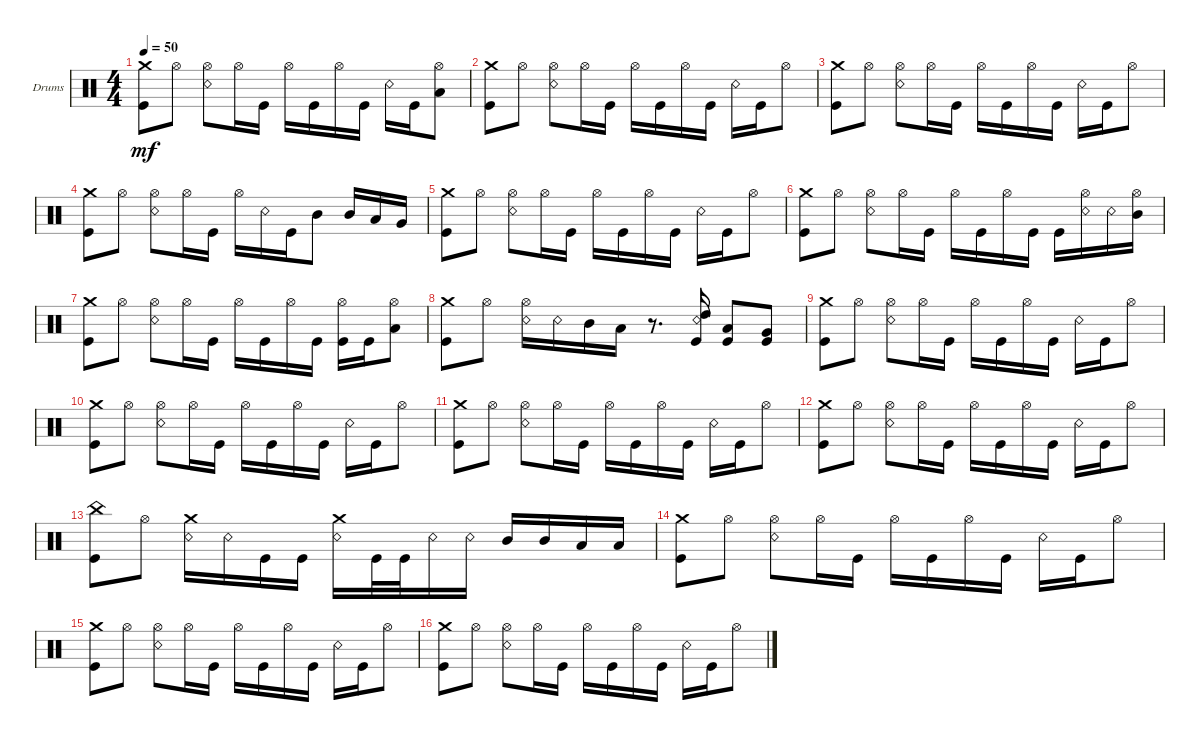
\defaultSystemsLayout 4
\bracketExtendMode groupsimilarinstruments
\firstSystemTrackNameOrientation horizontal
\otherSystemsTrackNameOrientation horizontal
\track ("Drumkit" "Drums") {instrument percussion}
\staff {score}
\articulation defaults
\ts (4 4)
\tempo 50
\clef neutral
\ks c
("Crash medium (hit)" "Kick (hit)").8{dy mf} "Hi-Hat (open)".8 ("Hi-Hat (open)" "Snare (rim shot)").8 "Hi-Hat (open)".16 "Kick (hit)".16 "Hi-Hat (open)".16 "Kick (hit)".16 "Hi-Hat (open)".16 "Kick (hit)".16 "Snare (rim shot)".16 "Kick (hit)".16 ("Low Tom (hit)" "Hi-Hat (open)").8 |
("Crash medium (hit)" "Kick (hit)").8 "Hi-Hat (open)".8 ("Snare (rim shot)" "Hi-Hat (open)").8 "Hi-Hat (open)".16 "Kick (hit)".16 "Hi-Hat (open)".16 "Kick (hit)".16 "Hi-Hat (open)".16 "Kick (hit)".16 "Snare (rim shot)".16 "Kick (hit)".16 "Hi-Hat (open)".8 |
("Crash medium (hit)" "Kick (hit)").8 "Hi-Hat (open)".8 ("Snare (rim shot)" "Hi-Hat (open)").8 "Hi-Hat (open)".16 "Kick (hit)".16 "Hi-Hat (open)".16 "Kick (hit)".16 "Hi-Hat (open)".16 "Kick (hit)".16 "Snare (rim shot)".16 "Kick (hit)".16 "Hi-Hat (open)".8 |
("Crash medium (hit)" "Kick (hit)").8 "Hi-Hat (open)".8 ("Hi-Hat (open)" "Snare (rim shot)").8 "Hi-Hat (open)".16 "Kick (hit)".16 "Hi-Hat (open)".16 "Snare (rim shot)".16 "Kick (hit)".16 "Mid Tom (hit)".8 "Mid Tom (hit)".16 "Low Tom (hit)".16 "Very Low Tom (hit)".16 |
("Crash medium (hit)" "Kick (hit)").8 "Hi-Hat (open)".8 ("Snare (rim shot)" "Hi-Hat (open)").8 "Hi-Hat (open)".16 "Kick (hit)".16 "Hi-Hat (open)".16 "Kick (hit)".16 "Hi-Hat (open)".16 "Kick (hit)".16 "Snare (rim shot)".16 "Kick (hit)".16 "Hi-Hat (open)".8 |
("Crash medium (hit)" "Kick (hit)").8 "Hi-Hat (open)".8 ("Hi-Hat (open)" "Snare (rim shot)").8 "Hi-Hat (open)".16 "Kick (hit)".16 "Hi-Hat (open)".16 "Kick (hit)".16 "Hi-Hat (open)".16 "Kick (hit)".16 "Kick (hit)".16 ("Snare (rim shot)" "Hi-Hat (open)").16 "Snare (rim shot)".16 ("Mid Tom (hit)" "Hi-Hat (open)").16 |
("Crash medium (hit)" "Kick (hit)").8 "Hi-Hat (open)".8 ("Hi-Hat (open)" "Snare (rim shot)").8 "Hi-Hat (open)".16 "Kick (hit)".16 "Hi-Hat (open)".16 "Kick (hit)".16 "Hi-Hat (open)".16 "Kick (hit)".16 ("Kick (hit)" "Hi-Hat (open)").16 "Kick (hit)".16 ("Low Tom (hit)" "Hi-Hat (open)").8 |
("Crash medium (hit)" "Kick (hit)").8 "Hi-Hat (open)".8 ("Hi-Hat (open)" "Snare (rim shot)").16 "Snare (rim shot)".16 "Mid Tom (hit)".16 "Low Tom (hit)".16 r.8{d} ("Snare (rim shot)" "Kick (hit)" "High Tom (hit)").16 ("Kick (hit)" "Low Tom (hit)").8 ("Kick (hit)" "Very Low Tom (hit)").8 |
("Crash medium (hit)" "Kick (hit)").8 "Hi-Hat (open)".8 ("Snare (rim shot)" "Hi-Hat (open)").8 "Hi-Hat (open)".16 "Kick (hit)".16 "Hi-Hat (open)".16 "Kick (hit)".16 "Hi-Hat (open)".16 "Kick (hit)".16 "Snare (rim shot)".16 "Kick (hit)".16 "Hi-Hat (open)".8 |
("Crash medium (hit)" "Kick (hit)").8 "Hi-Hat (open)".8 ("Snare (rim shot)" "Hi-Hat (open)").8 "Hi-Hat (open)".16 "Kick (hit)".16 "Hi-Hat (open)".16 "Kick (hit)".16 "Hi-Hat (open)".16 "Kick (hit)".16 "Snare (rim shot)".16 "Kick (hit)".16 "Hi-Hat (open)".8 |
("Crash medium (hit)" "Kick (hit)").8 "Hi-Hat (open)".8 ("Snare (rim shot)" "Hi-Hat (open)").8 "Hi-Hat (open)".16 "Kick (hit)".16 "Hi-Hat (open)".16 "Kick (hit)".16 "Hi-Hat (open)".16 "Kick (hit)".16 "Snare (rim shot)".16 "Kick (hit)".16 "Hi-Hat (open)".8 |
("Crash medium (hit)" "Kick (hit)").8 "Hi-Hat (open)".8 ("Snare (rim shot)" "Hi-Hat (open)").8 "Hi-Hat (open)".16 "Kick (hit)".16 "Hi-Hat (open)".16 "Kick (hit)".16 "Hi-Hat (open)".16 "Kick (hit)".16 "Snare (rim shot)".16 "Kick (hit)".16 "Hi-Hat (open)".8 |
("Kick (hit)" "China (hit)").8 "Hi-Hat (open)".8 ("Snare (rim shot)" "Crash medium (hit)").16 "Snare (rim shot)".16 "Kick (hit)".16 "Kick (hit)".16 ("Snare (rim shot)" "Crash medium (hit)").16 "Kick (hit)".32 "Kick (hit)".32 "Snare (rim shot)".16 "Snare (rim shot)".16 "Mid Tom (hit)".16 "Mid Tom (hit)".16 "Low Tom (hit)".16 "Low Tom (hit)".16 |
("Crash medium (hit)" "Kick (hit)").8 "Hi-Hat (open)".8 ("Snare (rim shot)" "Hi-Hat (open)").8 "Hi-Hat (open)".16 "Kick (hit)".16 "Hi-Hat (open)".16 "Kick (hit)".16 "Hi-Hat (open)".16 "Kick (hit)".16 "Snare (rim shot)".16 "Kick (hit)".16 "Hi-Hat (open)".8 |
("Crash medium (hit)" "Kick (hit)").8 "Hi-Hat (open)".8 ("Snare (rim shot)" "Hi-Hat (open)").8 "Hi-Hat (open)".16 "Kick (hit)".16 "Hi-Hat (open)".16 "Kick (hit)".16 "Hi-Hat (open)".16 "Kick (hit)".16 "Snare (rim shot)".16 "Kick (hit)".16 "Hi-Hat (open)".8 |
("Crash medium (hit)" "Kick (hit)").8 "Hi-Hat (open)".8 ("Snare (rim shot)" "Hi-Hat (open)").8 "Hi-Hat (open)".16 "Kick (hit)".16 "Hi-Hat (open)".16 "Kick (hit)".16 "Hi-Hat (open)".16 "Kick (hit)".16 "Snare (rim shot)".16 "Kick (hit)".16 "Hi-Hat (open)".8
